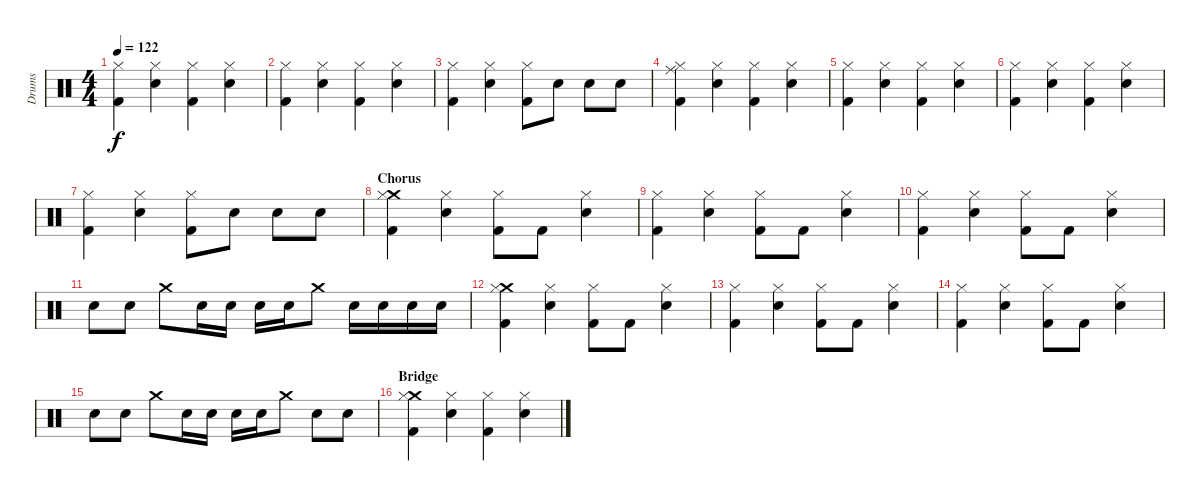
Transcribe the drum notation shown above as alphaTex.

\track ("Drums" "Drums") {instrument percussion}
\staff {score}
\articulation defaults
\ts (4 4)
\tempo 122
\clef neutral
\ks aminor
("Hi-Hat (closed)" "Kick (hit) 2").4{dy f} ("Hi-Hat (closed)" "Snare (hit) 2").4 ("Hi-Hat (closed)" "Kick (hit) 2").4 ("Hi-Hat (closed)" "Snare (hit) 2").4 |
("Hi-Hat (closed)" "Kick (hit) 2").4 ("Hi-Hat (closed)" "Snare (hit) 2").4 ("Hi-Hat (closed)" "Kick (hit) 2").4 ("Hi-Hat (closed)" "Snare (hit) 2").4 |
("Hi-Hat (closed)" "Kick (hit) 2").4 ("Hi-Hat (closed)" "Snare (hit) 2").4 ("Hi-Hat (closed)" "Kick (hit) 2").8 "Electric Snare (hit)".8 "Electric Snare (hit)".8 "Electric Snare (hit)".8 |
("Ride (middle)" "Hi-Hat (closed)" "Kick (hit) 2").4 ("Hi-Hat (closed)" "Snare (hit) 2").4 ("Hi-Hat (closed)" "Kick (hit) 2").4 ("Hi-Hat (closed)" "Snare (hit) 2").4 |
("Hi-Hat (closed)" "Kick (hit) 2").4 ("Hi-Hat (closed)" "Snare (hit) 2").4 ("Hi-Hat (closed)" "Kick (hit) 2").4 ("Hi-Hat (closed)" "Snare (hit) 2").4 |
("Hi-Hat (closed)" "Kick (hit) 2").4 ("Hi-Hat (closed)" "Snare (hit) 2").4 ("Hi-Hat (closed)" "Kick (hit) 2").4 ("Hi-Hat (closed)" "Snare (hit) 2").4 |
("Hi-Hat (closed)" "Kick (hit) 2").4 ("Hi-Hat (closed)" "Snare (hit) 2").4 ("Hi-Hat (closed)" "Kick (hit) 2").8 "Electric Snare (hit)".8 "Electric Snare (hit)".8 "Electric Snare (hit)".8 |
\section ("" "Chorus")
("Crash medium (hit)" "Hi-Hat (closed)" "Kick (hit) 2").4 ("Hi-Hat (closed)" "Snare (hit) 2").4 ("Hi-Hat (closed)" "Kick (hit) 2").8 "Kick (hit) 2".8 ("Hi-Hat (closed)" "Snare (hit) 2").4 |
("Hi-Hat (closed)" "Kick (hit) 2").4 ("Hi-Hat (closed)" "Snare (hit) 2").4 ("Hi-Hat (closed)" "Kick (hit) 2").8 "Kick (hit) 2".8 ("Hi-Hat (closed)" "Snare (hit) 2").4 |
("Hi-Hat (closed)" "Kick (hit) 2").4 ("Hi-Hat (closed)" "Snare (hit) 2").4 ("Hi-Hat (closed)" "Kick (hit) 2").8 "Kick (hit) 2".8 ("Hi-Hat (closed)" "Snare (hit) 2").4 |
"Electric Snare (hit)".8 "Electric Snare (hit)".8 "Crash medium (hit)".8 "Electric Snare (hit)".16 "Electric Snare (hit)".16 "Electric Snare (hit)".16 "Electric Snare (hit)".16 "Crash medium (hit)".8 "Electric Snare (hit)".16 "Electric Snare (hit)".16 "Electric Snare (hit)".16 "Electric Snare (hit)".16 |
("Crash medium (hit)" "Hi-Hat (closed)" "Kick (hit) 2").4 ("Hi-Hat (closed)" "Snare (hit) 2").4 ("Hi-Hat (closed)" "Kick (hit) 2").8 "Kick (hit) 2".8 ("Hi-Hat (closed)" "Snare (hit) 2").4 |
("Hi-Hat (closed)" "Kick (hit) 2").4 ("Hi-Hat (closed)" "Snare (hit) 2").4 ("Hi-Hat (closed)" "Kick (hit) 2").8 "Kick (hit) 2".8 ("Hi-Hat (closed)" "Snare (hit) 2").4 |
("Hi-Hat (closed)" "Kick (hit) 2").4 ("Hi-Hat (closed)" "Snare (hit) 2").4 ("Hi-Hat (closed)" "Kick (hit) 2").8 "Kick (hit) 2".8 ("Hi-Hat (closed)" "Snare (hit) 2").4 |
"Electric Snare (hit)".8 "Electric Snare (hit)".8 "Crash medium (hit)".8 "Electric Snare (hit)".16 "Electric Snare (hit)".16 "Electric Snare (hit)".16 "Electric Snare (hit)".16 "Crash medium (hit)".8 "Electric Snare (hit)".8 "Electric Snare (hit)".8 |
\section ("" "Bridge")
("Crash medium (hit)" "Hi-Hat (closed)" "Kick (hit) 2").4 ("Hi-Hat (closed)" "Snare (hit) 2").4 ("Hi-Hat (closed)" "Kick (hit) 2").4 ("Hi-Hat (closed)" "Snare (hit) 2").4
